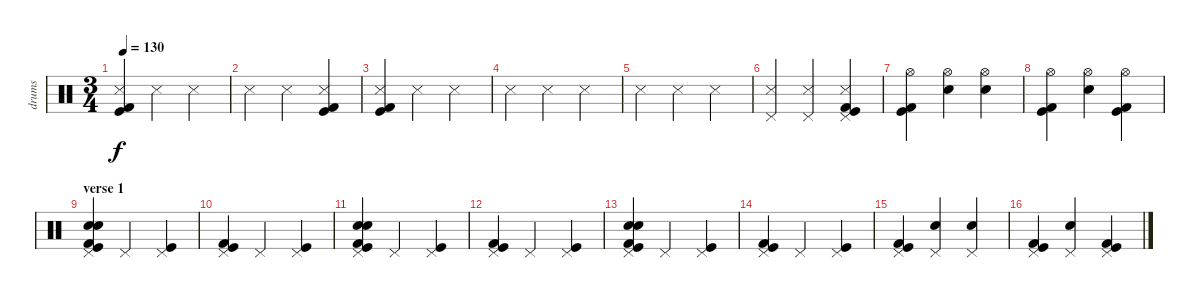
\track ("drums" "drums") {instrument percussion}
\staff {score}
\articulation defaults
\ts (3 4)
\tempo 130
\clef neutral
\ks c
("Metronome (hit)" "Kick (hit) 2" "Kick (hit)").4{dy f} "Snare (side stick) 3".4 "Snare (side stick) 3".4 |
"Metronome (hit)".4 "Snare (side stick) 3".4 ("Snare (side stick) 3" "Kick (hit) 2" "Kick (hit)").4 |
("Metronome (hit)" "Kick (hit) 2" "Kick (hit)").4 "Snare (side stick) 3".4 "Snare (side stick) 3".4 |
"Metronome (hit)".4 "Snare (side stick) 3".4 "Snare (side stick) 3".4 |
"Metronome (hit)".4 "Snare (side stick) 3".4 "Snare (side stick) 3".4 |
("Metronome (hit)" "Pedal Hi-Hat (hit)").4 ("Snare (side stick) 3" "Pedal Hi-Hat (hit)").4 ("Snare (side stick) 3" "Pedal Hi-Hat (hit)" "Kick (hit) 2" "Kick (hit)").4 |
("Hi-Hat (open)" "Kick (hit) 2" "Kick (hit)").4 ("Hi-Hat (open)" "Snare (hit) 2").4 ("Hi-Hat (open)" "Snare (hit) 2").4 |
("Hi-Hat (open)" "Kick (hit) 2" "Kick (hit)").4 ("Hi-Hat (open)" "Snare (hit) 2").4 ("Hi-Hat (open)" "Kick (hit) 2" "Kick (hit)").4 |
\section ("" "verse 1")
("Pedal Hi-Hat (hit)" "Electric Snare (hit)" "Snare (hit) 2" "Kick (hit) 2" "Kick (hit)").4 "Pedal Hi-Hat (hit)".4 ("Pedal Hi-Hat (hit)" "Kick (hit)").4 |
("Pedal Hi-Hat (hit)" "Kick (hit) 2" "Kick (hit)").4 "Pedal Hi-Hat (hit)".4 ("Pedal Hi-Hat (hit)" "Kick (hit)").4 |
("Pedal Hi-Hat (hit)" "Electric Snare (hit)" "Snare (hit) 2" "Kick (hit) 2" "Kick (hit)").4 "Pedal Hi-Hat (hit)".4 ("Pedal Hi-Hat (hit)" "Kick (hit)").4 |
("Pedal Hi-Hat (hit)" "Kick (hit) 2" "Kick (hit)").4 "Pedal Hi-Hat (hit)".4 ("Pedal Hi-Hat (hit)" "Kick (hit)").4 |
("Pedal Hi-Hat (hit)" "Electric Snare (hit)" "Snare (hit) 2" "Kick (hit) 2" "Kick (hit)").4 "Pedal Hi-Hat (hit)".4 ("Pedal Hi-Hat (hit)" "Kick (hit)").4 |
("Pedal Hi-Hat (hit)" "Kick (hit) 2" "Kick (hit)").4 "Pedal Hi-Hat (hit)".4 ("Pedal Hi-Hat (hit)" "Kick (hit)").4 |
("Pedal Hi-Hat (hit)" "Kick (hit) 2" "Kick (hit)").4 ("Pedal Hi-Hat (hit)" "Snare (hit) 2").4 ("Pedal Hi-Hat (hit)" "Snare (hit) 2").4 |
("Pedal Hi-Hat (hit)" "Kick (hit) 2" "Kick (hit)").4 ("Pedal Hi-Hat (hit)" "Snare (hit) 2").4 ("Pedal Hi-Hat (hit)" "Kick (hit) 2" "Kick (hit)").4
